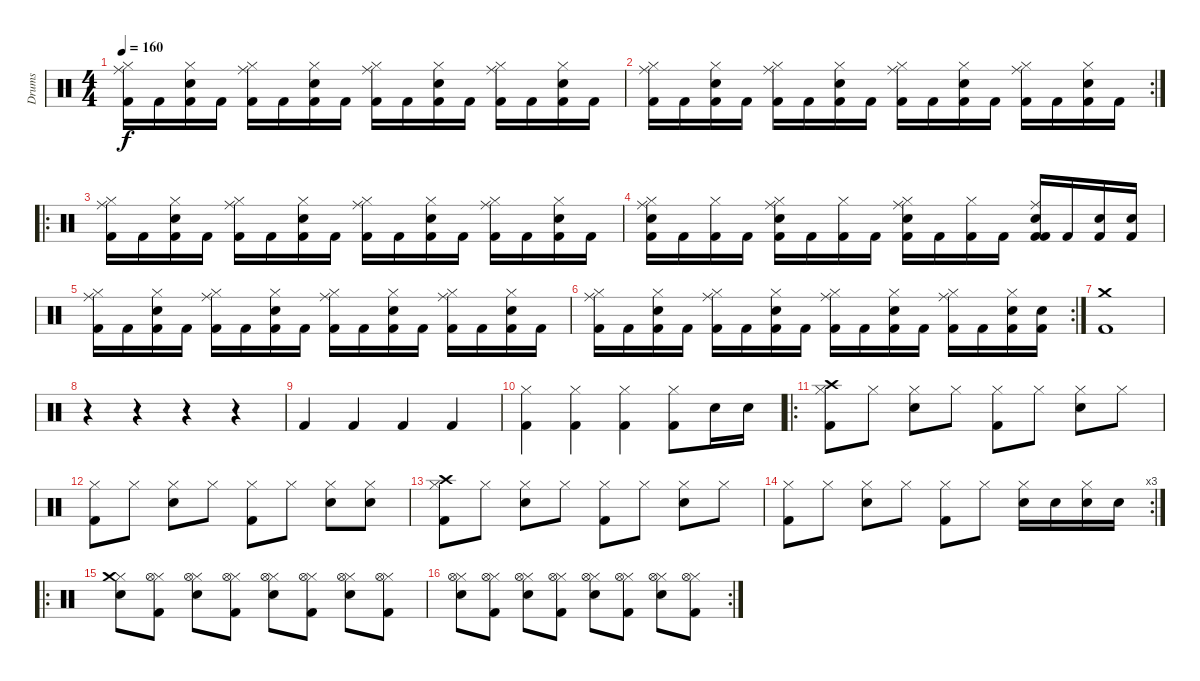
\track ("Drums" "Drums") {instrument percussion}
\staff {score}
\articulation defaults
\ts (4 4)
\tempo 160
\clef neutral
\ks c
("Kick (hit) 2" "Ride (middle)" "Hi-Hat (closed)").16{dy f} "Kick (hit) 2".16 ("Electric Snare (hit)" "Kick (hit) 2" "Hi-Hat (closed)").16 "Kick (hit) 2".16 ("Kick (hit) 2" "Ride (middle)" "Hi-Hat (closed)").16 "Kick (hit) 2".16 ("Electric Snare (hit)" "Kick (hit) 2" "Hi-Hat (closed)").16 "Kick (hit) 2".16 ("Kick (hit) 2" "Ride (middle)" "Hi-Hat (closed)").16 "Kick (hit) 2".16 ("Electric Snare (hit)" "Kick (hit) 2" "Hi-Hat (closed)").16 "Kick (hit) 2".16 ("Kick (hit) 2" "Ride (middle)" "Hi-Hat (closed)").16 "Kick (hit) 2".16 ("Electric Snare (hit)" "Kick (hit) 2" "Hi-Hat (closed)").16 "Kick (hit) 2".16 |
\rc 2
("Kick (hit) 2" "Ride (middle)" "Hi-Hat (closed)").16 "Kick (hit) 2".16 ("Electric Snare (hit)" "Kick (hit) 2" "Hi-Hat (closed)").16 "Kick (hit) 2".16 ("Kick (hit) 2" "Ride (middle)" "Hi-Hat (closed)").16 "Kick (hit) 2".16 ("Electric Snare (hit)" "Kick (hit) 2" "Hi-Hat (closed)").16 "Kick (hit) 2".16 ("Kick (hit) 2" "Ride (middle)" "Hi-Hat (closed)").16 "Kick (hit) 2".16 ("Electric Snare (hit)" "Kick (hit) 2" "Hi-Hat (closed)").16 "Kick (hit) 2".16 ("Kick (hit) 2" "Ride (middle)" "Hi-Hat (closed)").16 "Kick (hit) 2".16 ("Electric Snare (hit)" "Kick (hit) 2" "Hi-Hat (closed)").16 "Kick (hit) 2".16 |
\ro
("Kick (hit) 2" "Ride (middle)" "Hi-Hat (closed)").16 "Kick (hit) 2".16 ("Electric Snare (hit)" "Kick (hit) 2" "Hi-Hat (closed)").16 "Kick (hit) 2".16 ("Kick (hit) 2" "Ride (middle)" "Hi-Hat (closed)").16 "Kick (hit) 2".16 ("Electric Snare (hit)" "Kick (hit) 2" "Hi-Hat (closed)").16 "Kick (hit) 2".16 ("Kick (hit) 2" "Ride (middle)" "Hi-Hat (closed)").16 "Kick (hit) 2".16 ("Electric Snare (hit)" "Kick (hit) 2" "Hi-Hat (closed)").16 "Kick (hit) 2".16 ("Kick (hit) 2" "Ride (middle)" "Hi-Hat (closed)").16 "Kick (hit) 2".16 ("Electric Snare (hit)" "Kick (hit) 2" "Hi-Hat (closed)").16 "Kick (hit) 2".16 |
("Electric Snare (hit)" "Kick (hit) 2" "Ride (middle)" "Hi-Hat (closed)").16 "Kick (hit) 2".16 ("Kick (hit) 2" "Hi-Hat (closed)").16 "Kick (hit) 2".16 ("Electric Snare (hit)" "Kick (hit) 2" "Ride (middle)" "Hi-Hat (closed)").16 "Kick (hit) 2".16 ("Kick (hit) 2" "Hi-Hat (closed)").16 "Kick (hit) 2".16 ("Electric Snare (hit)" "Kick (hit) 2" "Ride (middle)" "Hi-Hat (closed)").16 "Kick (hit) 2".16 ("Kick (hit) 2" "Hi-Hat (closed)").16 "Kick (hit) 2".16 ("Electric Snare (hit)" "Kick (hit) 2" "Ride (middle)" "Kick (hit) 2").16 "Kick (hit) 2".16 ("Electric Snare (hit)" "Kick (hit) 2").16 ("Electric Snare (hit)" "Kick (hit) 2").16 |
("Kick (hit) 2" "Ride (middle)" "Hi-Hat (closed)").16 "Kick (hit) 2".16 ("Electric Snare (hit)" "Kick (hit) 2" "Hi-Hat (closed)").16 "Kick (hit) 2".16 ("Kick (hit) 2" "Ride (middle)" "Hi-Hat (closed)").16 "Kick (hit) 2".16 ("Electric Snare (hit)" "Kick (hit) 2" "Hi-Hat (closed)").16 "Kick (hit) 2".16 ("Kick (hit) 2" "Ride (middle)" "Hi-Hat (closed)").16 "Kick (hit) 2".16 ("Electric Snare (hit)" "Kick (hit) 2" "Hi-Hat (closed)").16 "Kick (hit) 2".16 ("Kick (hit) 2" "Ride (middle)" "Hi-Hat (closed)").16 "Kick (hit) 2".16 ("Electric Snare (hit)" "Kick (hit) 2" "Hi-Hat (closed)").16 "Kick (hit) 2".16 |
\rc 2
("Kick (hit) 2" "Ride (middle)" "Hi-Hat (closed)").16 "Kick (hit) 2".16 ("Electric Snare (hit)" "Kick (hit) 2" "Hi-Hat (closed)").16 "Kick (hit) 2".16 ("Kick (hit) 2" "Ride (middle)" "Hi-Hat (closed)").16 "Kick (hit) 2".16 ("Electric Snare (hit)" "Kick (hit) 2" "Hi-Hat (closed)").16 "Kick (hit) 2".16 ("Kick (hit) 2" "Ride (middle)" "Hi-Hat (closed)").16 "Kick (hit) 2".16 ("Electric Snare (hit)" "Kick (hit) 2" "Hi-Hat (closed)").16 "Kick (hit) 2".16 ("Kick (hit) 2" "Ride (middle)" "Hi-Hat (closed)").16 "Kick (hit) 2".16 ("Electric Snare (hit)" "Kick (hit) 2" "Hi-Hat (closed)").16 ("Electric Snare (hit)" "Kick (hit) 2").16 |
("Crash medium (hit)" "Kick (hit) 2").1 |
r.4 r.4 r.4 r.4 |
"Kick (hit) 2".4 "Kick (hit) 2".4 "Kick (hit) 2".4 "Kick (hit) 2".4 |
("Kick (hit) 2" "Hi-Hat (closed)").4 ("Kick (hit) 2" "Hi-Hat (closed)").4 ("Kick (hit) 2" "Hi-Hat (closed)").4 ("Kick (hit) 2" "Hi-Hat (closed)").8 "Electric Snare (hit)".16 "Electric Snare (hit)".16 |
\ro
("Hi-Hat (closed)" "Crash high (hit)" "Kick (hit) 2").8 "Hi-Hat (closed)".8 ("Hi-Hat (closed)" "Electric Snare (hit)").8 "Hi-Hat (closed)".8 ("Hi-Hat (closed)" "Kick (hit) 2").8 "Hi-Hat (closed)".8 ("Hi-Hat (closed)" "Electric Snare (hit)").8 "Hi-Hat (closed)".8 |
("Hi-Hat (closed)" "Kick (hit) 2").8 "Hi-Hat (closed)".8 ("Hi-Hat (closed)" "Electric Snare (hit)").8 "Hi-Hat (closed)".8 ("Hi-Hat (closed)" "Kick (hit) 2").8 "Hi-Hat (closed)".8 ("Hi-Hat (closed)" "Electric Snare (hit)").8 ("Hi-Hat (closed)" "Electric Snare (hit)").8 |
("Hi-Hat (closed)" "Crash high (hit)" "Kick (hit) 2").8 "Hi-Hat (closed)".8 ("Hi-Hat (closed)" "Electric Snare (hit)").8 "Hi-Hat (closed)".8 ("Hi-Hat (closed)" "Kick (hit) 2").8 "Hi-Hat (closed)".8 ("Hi-Hat (closed)" "Electric Snare (hit)").8 "Hi-Hat (closed)".8 |
\rc 3
("Hi-Hat (closed)" "Kick (hit) 2").8 "Hi-Hat (closed)".8 ("Hi-Hat (closed)" "Electric Snare (hit)").8 "Hi-Hat (closed)".8 ("Hi-Hat (closed)" "Kick (hit) 2").8 "Hi-Hat (closed)".8 ("Hi-Hat (closed)" "Electric Snare (hit)").16 "Electric Snare (hit)".16 ("Hi-Hat (closed)" "Electric Snare (hit)").16 "Electric Snare (hit)".16 |
\ro
("Hi-Hat (closed)" "Electric Snare (hit)" "Crash medium (hit)").8 ("Hi-Hat (closed)" "Kick (hit) 2" "Hi-Hat (open)").8 ("Hi-Hat (closed)" "Electric Snare (hit)" "Hi-Hat (open)").8 ("Hi-Hat (closed)" "Kick (hit) 2" "Hi-Hat (open)").8 ("Hi-Hat (closed)" "Electric Snare (hit)" "Hi-Hat (open)").8 ("Hi-Hat (closed)" "Kick (hit) 2" "Hi-Hat (open)").8 ("Hi-Hat (closed)" "Electric Snare (hit)" "Hi-Hat (open)").8 ("Hi-Hat (closed)" "Kick (hit) 2" "Hi-Hat (open)").8 |
\rc 2
("Hi-Hat (closed)" "Electric Snare (hit)" "Hi-Hat (open)").8 ("Hi-Hat (closed)" "Kick (hit) 2" "Hi-Hat (open)").8 ("Hi-Hat (closed)" "Electric Snare (hit)" "Hi-Hat (open)").8 ("Hi-Hat (closed)" "Kick (hit) 2" "Hi-Hat (open)").8 ("Hi-Hat (closed)" "Electric Snare (hit)" "Hi-Hat (open)").8 ("Hi-Hat (closed)" "Kick (hit) 2" "Hi-Hat (open)").8 ("Hi-Hat (closed)" "Electric Snare (hit)" "Hi-Hat (open)").8 ("Hi-Hat (closed)" "Kick (hit) 2" "Hi-Hat (open)").8
